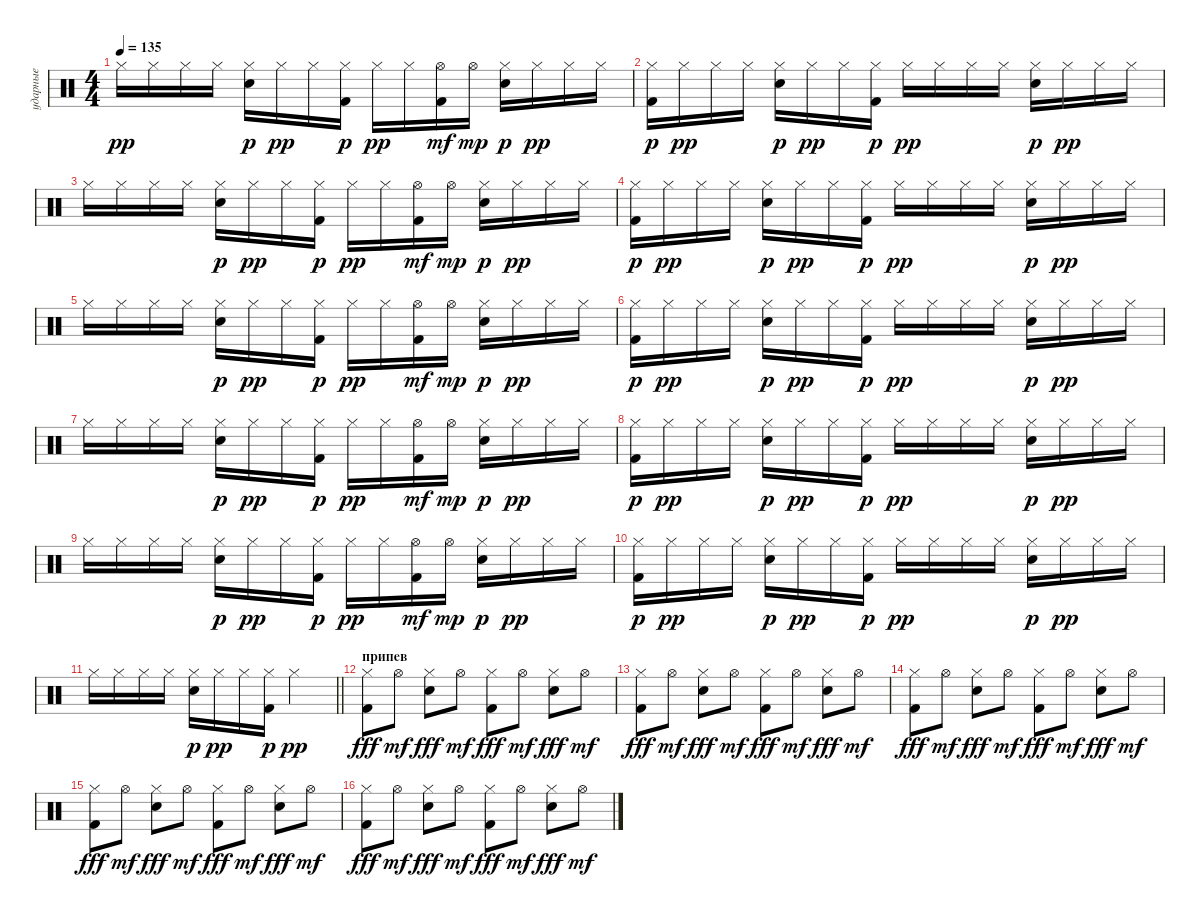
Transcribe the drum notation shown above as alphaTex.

\track ("ударные" "ударные") {instrument percussion}
\staff {score}
\articulation defaults
\ts (4 4)
\tempo 135
\clef neutral
\ks c "Hi-Hat (closed)".16{dy pp} "Hi-Hat (closed)".16 "Hi-Hat (closed)".16 "Hi-Hat (closed)".16
("Hi-Hat (closed)" "Electric Snare (hit)").16{dy p} "Hi-Hat (closed)".16{dy pp} "Hi-Hat (closed)".16 ("Hi-Hat (closed)" "Kick (hit) 2").16{dy p} "Hi-Hat (closed)".16{dy pp} "Hi-Hat (closed)".16 ("Hi-Hat (open)" "Kick (hit) 2").16{dy mf} "Hi-Hat (open)".16{dy mp} ("Hi-Hat (closed)" "Electric Snare (hit)").16{dy p} "Hi-Hat (closed)".16{dy pp} "Hi-Hat (closed)".16 "Hi-Hat (closed)".16 |
("Hi-Hat (closed)" "Kick (hit) 2").16{dy p} "Hi-Hat (closed)".16{dy pp} "Hi-Hat (closed)".16 "Hi-Hat (closed)".16 ("Hi-Hat (closed)" "Electric Snare (hit)").16{dy p} "Hi-Hat (closed)".16{dy pp} "Hi-Hat (closed)".16 ("Hi-Hat (closed)" "Kick (hit) 2").16{dy p} "Hi-Hat (closed)".16{dy pp} "Hi-Hat (closed)".16 "Hi-Hat (closed)".16 "Hi-Hat (closed)".16 ("Hi-Hat (closed)" "Electric Snare (hit)").16{dy p} "Hi-Hat (closed)".16{dy pp} "Hi-Hat (closed)".16 "Hi-Hat (closed)".16 |
"Hi-Hat (closed)".16 "Hi-Hat (closed)".16 "Hi-Hat (closed)".16 "Hi-Hat (closed)".16 ("Hi-Hat (closed)" "Electric Snare (hit)").16{dy p} "Hi-Hat (closed)".16{dy pp} "Hi-Hat (closed)".16 ("Hi-Hat (closed)" "Kick (hit) 2").16{dy p} "Hi-Hat (closed)".16{dy pp} "Hi-Hat (closed)".16 ("Hi-Hat (open)" "Kick (hit) 2").16{dy mf} "Hi-Hat (open)".16{dy mp} ("Hi-Hat (closed)" "Electric Snare (hit)").16{dy p} "Hi-Hat (closed)".16{dy pp} "Hi-Hat (closed)".16 "Hi-Hat (closed)".16 |
("Hi-Hat (closed)" "Kick (hit) 2").16{dy p} "Hi-Hat (closed)".16{dy pp} "Hi-Hat (closed)".16 "Hi-Hat (closed)".16 ("Hi-Hat (closed)" "Electric Snare (hit)").16{dy p} "Hi-Hat (closed)".16{dy pp} "Hi-Hat (closed)".16 ("Hi-Hat (closed)" "Kick (hit) 2").16{dy p} "Hi-Hat (closed)".16{dy pp} "Hi-Hat (closed)".16 "Hi-Hat (closed)".16 "Hi-Hat (closed)".16 ("Hi-Hat (closed)" "Electric Snare (hit)").16{dy p} "Hi-Hat (closed)".16{dy pp} "Hi-Hat (closed)".16 "Hi-Hat (closed)".16 |
"Hi-Hat (closed)".16 "Hi-Hat (closed)".16 "Hi-Hat (closed)".16 "Hi-Hat (closed)".16 ("Hi-Hat (closed)" "Electric Snare (hit)").16{dy p} "Hi-Hat (closed)".16{dy pp} "Hi-Hat (closed)".16 ("Hi-Hat (closed)" "Kick (hit) 2").16{dy p} "Hi-Hat (closed)".16{dy pp} "Hi-Hat (closed)".16 ("Hi-Hat (open)" "Kick (hit) 2").16{dy mf} "Hi-Hat (open)".16{dy mp} ("Hi-Hat (closed)" "Electric Snare (hit)").16{dy p} "Hi-Hat (closed)".16{dy pp} "Hi-Hat (closed)".16 "Hi-Hat (closed)".16 |
("Hi-Hat (closed)" "Kick (hit) 2").16{dy p} "Hi-Hat (closed)".16{dy pp} "Hi-Hat (closed)".16 "Hi-Hat (closed)".16 ("Hi-Hat (closed)" "Electric Snare (hit)").16{dy p} "Hi-Hat (closed)".16{dy pp} "Hi-Hat (closed)".16 ("Hi-Hat (closed)" "Kick (hit) 2").16{dy p} "Hi-Hat (closed)".16{dy pp} "Hi-Hat (closed)".16 "Hi-Hat (closed)".16 "Hi-Hat (closed)".16 ("Hi-Hat (closed)" "Electric Snare (hit)").16{dy p} "Hi-Hat (closed)".16{dy pp} "Hi-Hat (closed)".16 "Hi-Hat (closed)".16 |
"Hi-Hat (closed)".16 "Hi-Hat (closed)".16 "Hi-Hat (closed)".16 "Hi-Hat (closed)".16 ("Hi-Hat (closed)" "Electric Snare (hit)").16{dy p} "Hi-Hat (closed)".16{dy pp} "Hi-Hat (closed)".16 ("Hi-Hat (closed)" "Kick (hit) 2").16{dy p} "Hi-Hat (closed)".16{dy pp} "Hi-Hat (closed)".16 ("Hi-Hat (open)" "Kick (hit) 2").16{dy mf} "Hi-Hat (open)".16{dy mp} ("Hi-Hat (closed)" "Electric Snare (hit)").16{dy p} "Hi-Hat (closed)".16{dy pp} "Hi-Hat (closed)".16 "Hi-Hat (closed)".16 |
("Hi-Hat (closed)" "Kick (hit) 2").16{dy p} "Hi-Hat (closed)".16{dy pp} "Hi-Hat (closed)".16 "Hi-Hat (closed)".16 ("Hi-Hat (closed)" "Electric Snare (hit)").16{dy p} "Hi-Hat (closed)".16{dy pp} "Hi-Hat (closed)".16 ("Hi-Hat (closed)" "Kick (hit) 2").16{dy p} "Hi-Hat (closed)".16{dy pp} "Hi-Hat (closed)".16 "Hi-Hat (closed)".16 "Hi-Hat (closed)".16 ("Hi-Hat (closed)" "Electric Snare (hit)").16{dy p} "Hi-Hat (closed)".16{dy pp} "Hi-Hat (closed)".16 "Hi-Hat (closed)".16 |
"Hi-Hat (closed)".16 "Hi-Hat (closed)".16 "Hi-Hat (closed)".16 "Hi-Hat (closed)".16 ("Hi-Hat (closed)" "Electric Snare (hit)").16{dy p} "Hi-Hat (closed)".16{dy pp} "Hi-Hat (closed)".16 ("Hi-Hat (closed)" "Kick (hit) 2").16{dy p} "Hi-Hat (closed)".16{dy pp} "Hi-Hat (closed)".16 ("Hi-Hat (open)" "Kick (hit) 2").16{dy mf} "Hi-Hat (open)".16{dy mp} ("Hi-Hat (closed)" "Electric Snare (hit)").16{dy p} "Hi-Hat (closed)".16{dy pp} "Hi-Hat (closed)".16 "Hi-Hat (closed)".16 |
("Hi-Hat (closed)" "Kick (hit) 2").16{dy p} "Hi-Hat (closed)".16{dy pp} "Hi-Hat (closed)".16 "Hi-Hat (closed)".16 ("Hi-Hat (closed)" "Electric Snare (hit)").16{dy p} "Hi-Hat (closed)".16{dy pp} "Hi-Hat (closed)".16 ("Hi-Hat (closed)" "Kick (hit) 2").16{dy p} "Hi-Hat (closed)".16{dy pp} "Hi-Hat (closed)".16 "Hi-Hat (closed)".16 "Hi-Hat (closed)".16 ("Hi-Hat (closed)" "Electric Snare (hit)").16{dy p} "Hi-Hat (closed)".16{dy pp} "Hi-Hat (closed)".16 "Hi-Hat (closed)".16 |
\barLineRight lightlight "Hi-Hat (closed)".16 "Hi-Hat (closed)".16 "Hi-Hat (closed)".16 "Hi-Hat (closed)".16
("Hi-Hat (closed)" "Electric Snare (hit)").16{dy p} "Hi-Hat (closed)".16{dy pp} "Hi-Hat (closed)".16 ("Hi-Hat (closed)" "Kick (hit) 2").16{dy p} "Hi-Hat (closed)".2{dy pp} |
\section ("" "припев")
("Hi-Hat (closed)" "Kick (hit) 2").8{dy fff} "Hi-Hat (open)".8{dy mf} ("Hi-Hat (closed)" "Snare (hit) 2").8{dy fff} "Hi-Hat (open)".8{dy mf} ("Hi-Hat (closed)" "Kick (hit) 2").8{dy fff} "Hi-Hat (open)".8{dy mf} ("Hi-Hat (closed)" "Snare (hit) 2").8{dy fff} "Hi-Hat (open)".8{dy mf} |
("Hi-Hat (closed)" "Kick (hit) 2").8{dy fff} "Hi-Hat (open)".8{dy mf} ("Hi-Hat (closed)" "Snare (hit) 2").8{dy fff} "Hi-Hat (open)".8{dy mf} ("Hi-Hat (closed)" "Kick (hit) 2").8{dy fff} "Hi-Hat (open)".8{dy mf} ("Hi-Hat (closed)" "Snare (hit) 2").8{dy fff} "Hi-Hat (open)".8{dy mf} |
("Hi-Hat (closed)" "Kick (hit) 2").8{dy fff} "Hi-Hat (open)".8{dy mf} ("Hi-Hat (closed)" "Snare (hit) 2").8{dy fff} "Hi-Hat (open)".8{dy mf} ("Hi-Hat (closed)" "Kick (hit) 2").8{dy fff} "Hi-Hat (open)".8{dy mf} ("Hi-Hat (closed)" "Snare (hit) 2").8{dy fff} "Hi-Hat (open)".8{dy mf} |
("Hi-Hat (closed)" "Kick (hit) 2").8{dy fff} "Hi-Hat (open)".8{dy mf} ("Hi-Hat (closed)" "Snare (hit) 2").8{dy fff} "Hi-Hat (open)".8{dy mf} ("Hi-Hat (closed)" "Kick (hit) 2").8{dy fff} "Hi-Hat (open)".8{dy mf} ("Hi-Hat (closed)" "Snare (hit) 2").8{dy fff} "Hi-Hat (open)".8{dy mf} |
("Hi-Hat (closed)" "Kick (hit) 2").8{dy fff} "Hi-Hat (open)".8{dy mf} ("Hi-Hat (closed)" "Electric Snare (hit)").8{dy fff} "Hi-Hat (open)".8{dy mf} ("Hi-Hat (closed)" "Kick (hit) 2").8{dy fff} "Hi-Hat (open)".8{dy mf} ("Hi-Hat (closed)" "Snare (hit) 2").8{dy fff} "Hi-Hat (open)".8{dy mf}
